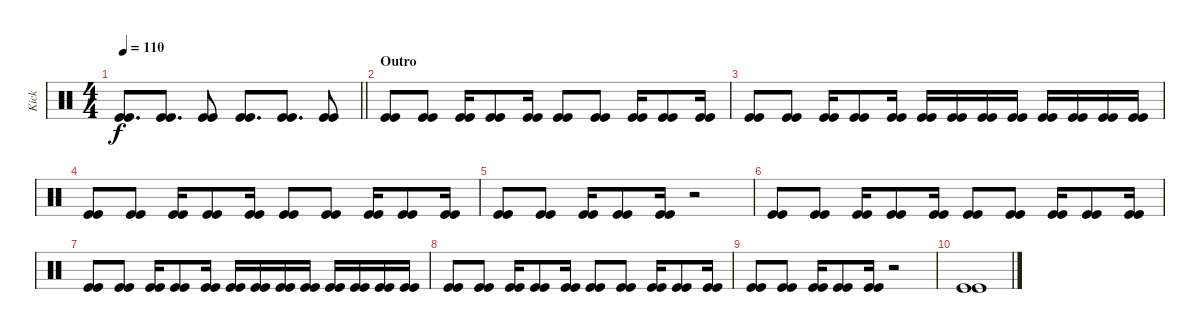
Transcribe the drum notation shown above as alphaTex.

\track ("Kick" "Kick") {instrument percussion}
\staff {score}
\articulation defaults
\ts (4 4)
\tempo 110
\clef neutral
\barLineRight lightlight
\ks c
("Kick (hit)" "Kick (hit)").8{d dy f} ("Kick (hit)" "Kick (hit)").8{d} ("Kick (hit)" "Kick (hit)").8 ("Kick (hit)" "Kick (hit)").8{d} ("Kick (hit)" "Kick (hit)").8{d} ("Kick (hit)" "Kick (hit)").8 |
\section ("" "Outro")
("Kick (hit)" "Kick (hit)").8 ("Kick (hit)" "Kick (hit)").8 ("Kick (hit)" "Kick (hit)").16 ("Kick (hit)" "Kick (hit)").8 ("Kick (hit)" "Kick (hit)").16 ("Kick (hit)" "Kick (hit)").8 ("Kick (hit)" "Kick (hit)").8 ("Kick (hit)" "Kick (hit)").16 ("Kick (hit)" "Kick (hit)").8 ("Kick (hit)" "Kick (hit)").16 |
("Kick (hit)" "Kick (hit)").8 ("Kick (hit)" "Kick (hit)").8 ("Kick (hit)" "Kick (hit)").16 ("Kick (hit)" "Kick (hit)").8 ("Kick (hit)" "Kick (hit)").16 ("Kick (hit)" "Kick (hit)").16 ("Kick (hit)" "Kick (hit)").16 ("Kick (hit)" "Kick (hit)").16 ("Kick (hit)" "Kick (hit)").16 ("Kick (hit)" "Kick (hit)").16 ("Kick (hit)" "Kick (hit)").16 ("Kick (hit)" "Kick (hit)").16 ("Kick (hit)" "Kick (hit)").16 |
("Kick (hit)" "Kick (hit)").8 ("Kick (hit)" "Kick (hit)").8 ("Kick (hit)" "Kick (hit)").16 ("Kick (hit)" "Kick (hit)").8 ("Kick (hit)" "Kick (hit)").16 ("Kick (hit)" "Kick (hit)").8 ("Kick (hit)" "Kick (hit)").8 ("Kick (hit)" "Kick (hit)").16 ("Kick (hit)" "Kick (hit)").8 ("Kick (hit)" "Kick (hit)").16 |
("Kick (hit)" "Kick (hit)").8 ("Kick (hit)" "Kick (hit)").8 ("Kick (hit)" "Kick (hit)").16 ("Kick (hit)" "Kick (hit)").8 ("Kick (hit)" "Kick (hit)").16 r.2 |
("Kick (hit)" "Kick (hit)").8 ("Kick (hit)" "Kick (hit)").8 ("Kick (hit)" "Kick (hit)").16 ("Kick (hit)" "Kick (hit)").8 ("Kick (hit)" "Kick (hit)").16 ("Kick (hit)" "Kick (hit)").8 ("Kick (hit)" "Kick (hit)").8 ("Kick (hit)" "Kick (hit)").16 ("Kick (hit)" "Kick (hit)").8 ("Kick (hit)" "Kick (hit)").16 |
("Kick (hit)" "Kick (hit)").8 ("Kick (hit)" "Kick (hit)").8 ("Kick (hit)" "Kick (hit)").16 ("Kick (hit)" "Kick (hit)").8 ("Kick (hit)" "Kick (hit)").16 ("Kick (hit)" "Kick (hit)").16 ("Kick (hit)" "Kick (hit)").16 ("Kick (hit)" "Kick (hit)").16 ("Kick (hit)" "Kick (hit)").16 ("Kick (hit)" "Kick (hit)").16 ("Kick (hit)" "Kick (hit)").16 ("Kick (hit)" "Kick (hit)").16 ("Kick (hit)" "Kick (hit)").16 |
("Kick (hit)" "Kick (hit)").8 ("Kick (hit)" "Kick (hit)").8 ("Kick (hit)" "Kick (hit)").16 ("Kick (hit)" "Kick (hit)").8 ("Kick (hit)" "Kick (hit)").16 ("Kick (hit)" "Kick (hit)").8 ("Kick (hit)" "Kick (hit)").8 ("Kick (hit)" "Kick (hit)").16 ("Kick (hit)" "Kick (hit)").8 ("Kick (hit)" "Kick (hit)").16 |
("Kick (hit)" "Kick (hit)").8 ("Kick (hit)" "Kick (hit)").8 ("Kick (hit)" "Kick (hit)").16 ("Kick (hit)" "Kick (hit)").8 ("Kick (hit)" "Kick (hit)").16 r.2 |
("Kick (hit)" "Kick (hit)").1
